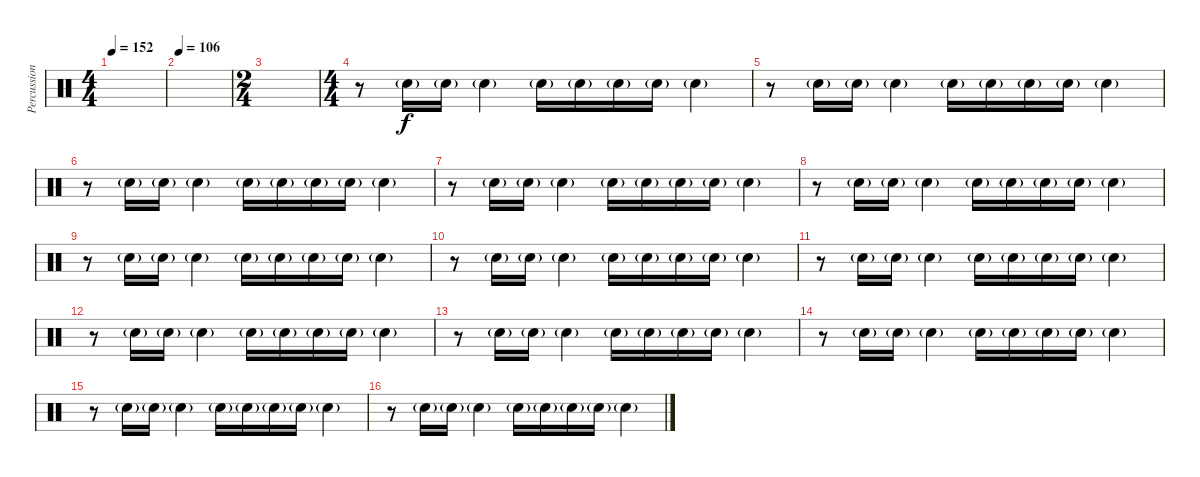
\track ("Percussion" "Percussion") {instrument percussion}
\staff {score}
\articulation defaults
\ts (4 4)
\tempo 152
\clef neutral
\ks c
|
\tempo 106
|
\ts (2 4)
|
\ts (4 4)
r.8 "Snare (hit) 2"{g}.16 "Snare (hit) 2"{g}.16 "Snare (hit) 2"{g}.4 "Snare (hit) 2"{g}.16 "Snare (hit) 2"{g}.16 "Snare (hit) 2"{g}.16 "Snare (hit) 2"{g}.16 "Snare (hit) 2"{g}.4 |
r.8 "Snare (hit) 2"{g}.16 "Snare (hit) 2"{g}.16 "Snare (hit) 2"{g}.4 "Snare (hit) 2"{g}.16 "Snare (hit) 2"{g}.16 "Snare (hit) 2"{g}.16 "Snare (hit) 2"{g}.16 "Snare (hit) 2"{g}.4 |
r.8 "Snare (hit) 2"{g}.16 "Snare (hit) 2"{g}.16 "Snare (hit) 2"{g}.4 "Snare (hit) 2"{g}.16 "Snare (hit) 2"{g}.16 "Snare (hit) 2"{g}.16 "Snare (hit) 2"{g}.16 "Snare (hit) 2"{g}.4 |
r.8 "Snare (hit) 2"{g}.16 "Snare (hit) 2"{g}.16 "Snare (hit) 2"{g}.4 "Snare (hit) 2"{g}.16 "Snare (hit) 2"{g}.16 "Snare (hit) 2"{g}.16 "Snare (hit) 2"{g}.16 "Snare (hit) 2"{g}.4 |
r.8 "Snare (hit) 2"{g}.16 "Snare (hit) 2"{g}.16 "Snare (hit) 2"{g}.4 "Snare (hit) 2"{g}.16 "Snare (hit) 2"{g}.16 "Snare (hit) 2"{g}.16 "Snare (hit) 2"{g}.16 "Snare (hit) 2"{g}.4 |
r.8 "Snare (hit) 2"{g}.16 "Snare (hit) 2"{g}.16 "Snare (hit) 2"{g}.4 "Snare (hit) 2"{g}.16 "Snare (hit) 2"{g}.16 "Snare (hit) 2"{g}.16 "Snare (hit) 2"{g}.16 "Snare (hit) 2"{g}.4 |
r.8 "Snare (hit) 2"{g}.16 "Snare (hit) 2"{g}.16 "Snare (hit) 2"{g}.4 "Snare (hit) 2"{g}.16 "Snare (hit) 2"{g}.16 "Snare (hit) 2"{g}.16 "Snare (hit) 2"{g}.16 "Snare (hit) 2"{g}.4 |
r.8 "Snare (hit) 2"{g}.16 "Snare (hit) 2"{g}.16 "Snare (hit) 2"{g}.4 "Snare (hit) 2"{g}.16 "Snare (hit) 2"{g}.16 "Snare (hit) 2"{g}.16 "Snare (hit) 2"{g}.16 "Snare (hit) 2"{g}.4 |
r.8 "Snare (hit) 2"{g}.16 "Snare (hit) 2"{g}.16 "Snare (hit) 2"{g}.4 "Snare (hit) 2"{g}.16 "Snare (hit) 2"{g}.16 "Snare (hit) 2"{g}.16 "Snare (hit) 2"{g}.16 "Snare (hit) 2"{g}.4 |
r.8 "Snare (hit) 2"{g}.16 "Snare (hit) 2"{g}.16 "Snare (hit) 2"{g}.4 "Snare (hit) 2"{g}.16 "Snare (hit) 2"{g}.16 "Snare (hit) 2"{g}.16 "Snare (hit) 2"{g}.16 "Snare (hit) 2"{g}.4 |
r.8 "Snare (hit) 2"{g}.16 "Snare (hit) 2"{g}.16 "Snare (hit) 2"{g}.4 "Snare (hit) 2"{g}.16 "Snare (hit) 2"{g}.16 "Snare (hit) 2"{g}.16 "Snare (hit) 2"{g}.16 "Snare (hit) 2"{g}.4 |
r.8 "Snare (hit) 2"{g}.16 "Snare (hit) 2"{g}.16 "Snare (hit) 2"{g}.4 "Snare (hit) 2"{g}.16 "Snare (hit) 2"{g}.16 "Snare (hit) 2"{g}.16 "Snare (hit) 2"{g}.16 "Snare (hit) 2"{g}.4 |
r.8 "Snare (hit) 2"{g}.16 "Snare (hit) 2"{g}.16 "Snare (hit) 2"{g}.4 "Snare (hit) 2"{g}.16 "Snare (hit) 2"{g}.16 "Snare (hit) 2"{g}.16 "Snare (hit) 2"{g}.16 "Snare (hit) 2"{g}.4
